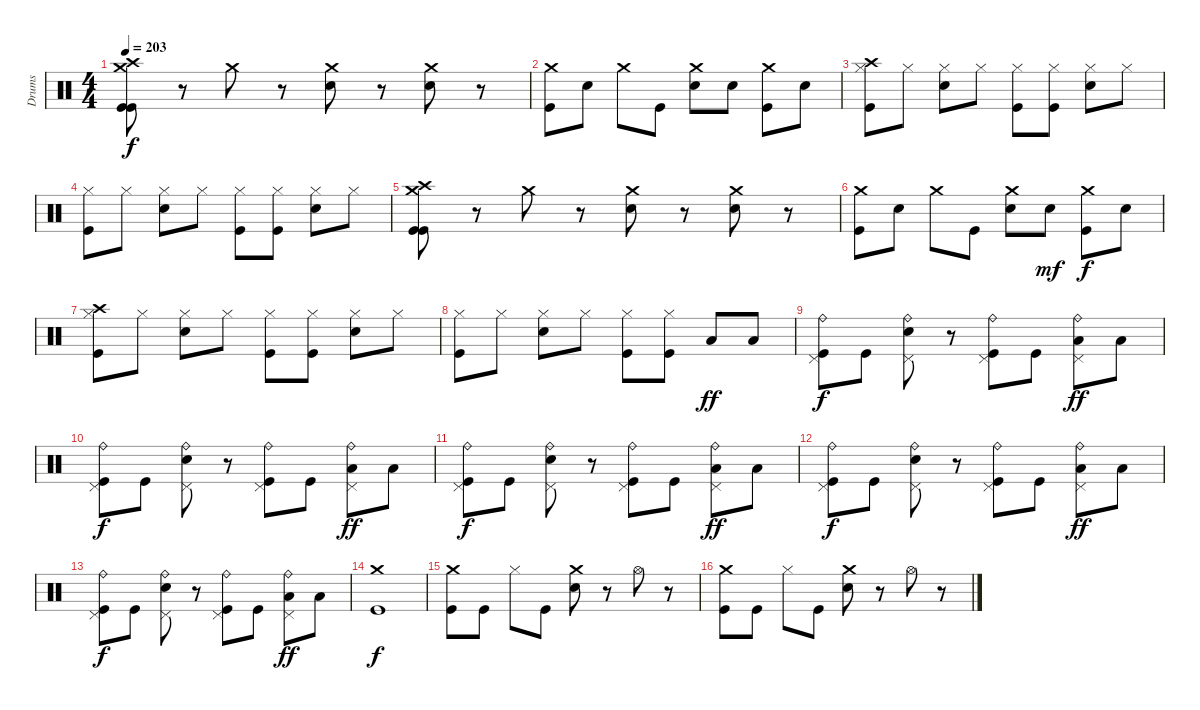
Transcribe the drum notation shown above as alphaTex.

\track ("Drums" "Drums") {instrument percussion}
\staff {score}
\articulation defaults
\ts (4 4)
\tempo 203
\clef neutral
\ks c
("Crash high (hit)" "Kick (hit)" "Crash medium (hit)" "Kick (hit)").8{dy f} r.8 "Crash medium (hit)".8 r.8 ("Crash medium (hit)" "Snare (hit) 2").8 r.8 ("Crash medium (hit)" "Snare (hit) 2").8 r.8 |
("Crash medium (hit)" "Kick (hit)").8 "Snare (hit) 2".8 "Crash medium (hit)".8 "Kick (hit)".8 ("Crash medium (hit)" "Snare (hit) 2").8 "Snare (hit) 2".8 ("Crash medium (hit)" "Kick (hit)").8 "Snare (hit) 2".8 |
("Crash high (hit)" "Hi-Hat (closed)" "Kick (hit)").8 "Hi-Hat (closed)".8 ("Hi-Hat (closed)" "Snare (hit) 2").8 "Hi-Hat (closed)".8 ("Hi-Hat (closed)" "Kick (hit)").8 ("Hi-Hat (closed)" "Kick (hit)").8 ("Hi-Hat (closed)" "Snare (hit) 2").8 "Hi-Hat (closed)".8 |
("Hi-Hat (closed)" "Kick (hit)").8 "Hi-Hat (closed)".8 ("Hi-Hat (closed)" "Snare (hit) 2").8 "Hi-Hat (closed)".8 ("Hi-Hat (closed)" "Kick (hit)").8 ("Hi-Hat (closed)" "Kick (hit)").8 ("Hi-Hat (closed)" "Snare (hit) 2").8 "Hi-Hat (closed)".8 |
("Crash high (hit)" "Kick (hit)" "Crash medium (hit)" "Kick (hit)").8 r.8 "Crash medium (hit)".8 r.8 ("Crash medium (hit)" "Snare (hit) 2").8 r.8 ("Crash medium (hit)" "Snare (hit) 2").8 r.8 |
("Crash medium (hit)" "Kick (hit)").8 "Snare (hit) 2".8 "Crash medium (hit)".8 "Kick (hit)".8 ("Crash medium (hit)" "Snare (hit) 2").8 "Snare (hit) 2".8{dy mf} ("Crash medium (hit)" "Kick (hit)").8{dy f} "Snare (hit) 2".8 |
("Crash high (hit)" "Hi-Hat (closed)" "Kick (hit)").8 "Hi-Hat (closed)".8 ("Hi-Hat (closed)" "Snare (hit) 2").8 "Hi-Hat (closed)".8 ("Hi-Hat (closed)" "Kick (hit)").8 ("Hi-Hat (closed)" "Kick (hit)").8 ("Hi-Hat (closed)" "Snare (hit) 2").8 "Hi-Hat (closed)".8 |
("Hi-Hat (closed)" "Kick (hit)").8 "Hi-Hat (closed)".8 ("Hi-Hat (closed)" "Snare (hit) 2").8 "Hi-Hat (closed)".8 ("Hi-Hat (closed)" "Kick (hit)").8 ("Hi-Hat (closed)" "Kick (hit)").8 "Low Tom (hit)".8{dy ff} "Low Tom (hit)".8 |
("Pedal Hi-Hat (hit)" "Ride (bell)" "Kick (hit)").8{dy f} "Kick (hit)".8 ("Pedal Hi-Hat (hit)" "Ride (bell)" "Snare (hit) 2").8 r.8 ("Pedal Hi-Hat (hit)" "Ride (bell)" "Kick (hit)").8 "Kick (hit)".8 ("Pedal Hi-Hat (hit)" "Ride (bell)" "Low Tom (hit)").8{dy ff} "Low Tom (hit)".8 |
("Pedal Hi-Hat (hit)" "Ride (bell)" "Kick (hit)").8{dy f} "Kick (hit)".8 ("Pedal Hi-Hat (hit)" "Ride (bell)" "Snare (hit) 2").8 r.8 ("Pedal Hi-Hat (hit)" "Ride (bell)" "Kick (hit)").8 "Kick (hit)".8 ("Pedal Hi-Hat (hit)" "Ride (bell)" "Low Tom (hit)").8{dy ff} "Low Tom (hit)".8 |
("Pedal Hi-Hat (hit)" "Ride (bell)" "Kick (hit)").8{dy f} "Kick (hit)".8 ("Pedal Hi-Hat (hit)" "Ride (bell)" "Snare (hit) 2").8 r.8 ("Pedal Hi-Hat (hit)" "Ride (bell)" "Kick (hit)").8 "Kick (hit)".8 ("Pedal Hi-Hat (hit)" "Ride (bell)" "Low Tom (hit)").8{dy ff} "Low Tom (hit)".8 |
("Pedal Hi-Hat (hit)" "Ride (bell)" "Kick (hit)").8{dy f} "Kick (hit)".8 ("Pedal Hi-Hat (hit)" "Ride (bell)" "Snare (hit) 2").8 r.8 ("Pedal Hi-Hat (hit)" "Ride (bell)" "Kick (hit)").8 "Kick (hit)".8 ("Pedal Hi-Hat (hit)" "Ride (bell)" "Low Tom (hit)").8{dy ff} "Low Tom (hit)".8 |
("Pedal Hi-Hat (hit)" "Ride (bell)" "Kick (hit)").8{dy f} "Kick (hit)".8 ("Pedal Hi-Hat (hit)" "Ride (bell)" "Snare (hit) 2").8 r.8 ("Pedal Hi-Hat (hit)" "Ride (bell)" "Kick (hit)").8 "Kick (hit)".8 ("Pedal Hi-Hat (hit)" "Ride (bell)" "Low Tom (hit)").8{dy ff} "Low Tom (hit)".8 |
("Crash medium (hit)" "Kick (hit)").1{dy f} |
("Crash medium (hit)" "Kick (hit)").8 "Kick (hit)".8 "Hi-Hat (closed)".8 "Kick (hit)".8 ("Crash medium (hit)" "Snare (hit) 2").8 r.8 "Hi-Hat (open)".8 r.8 |
("Crash medium (hit)" "Kick (hit)").8 "Kick (hit)".8 "Hi-Hat (closed)".8 "Kick (hit)".8 ("Crash medium (hit)" "Snare (hit) 2").8 r.8 "Hi-Hat (open)".8 r.8
